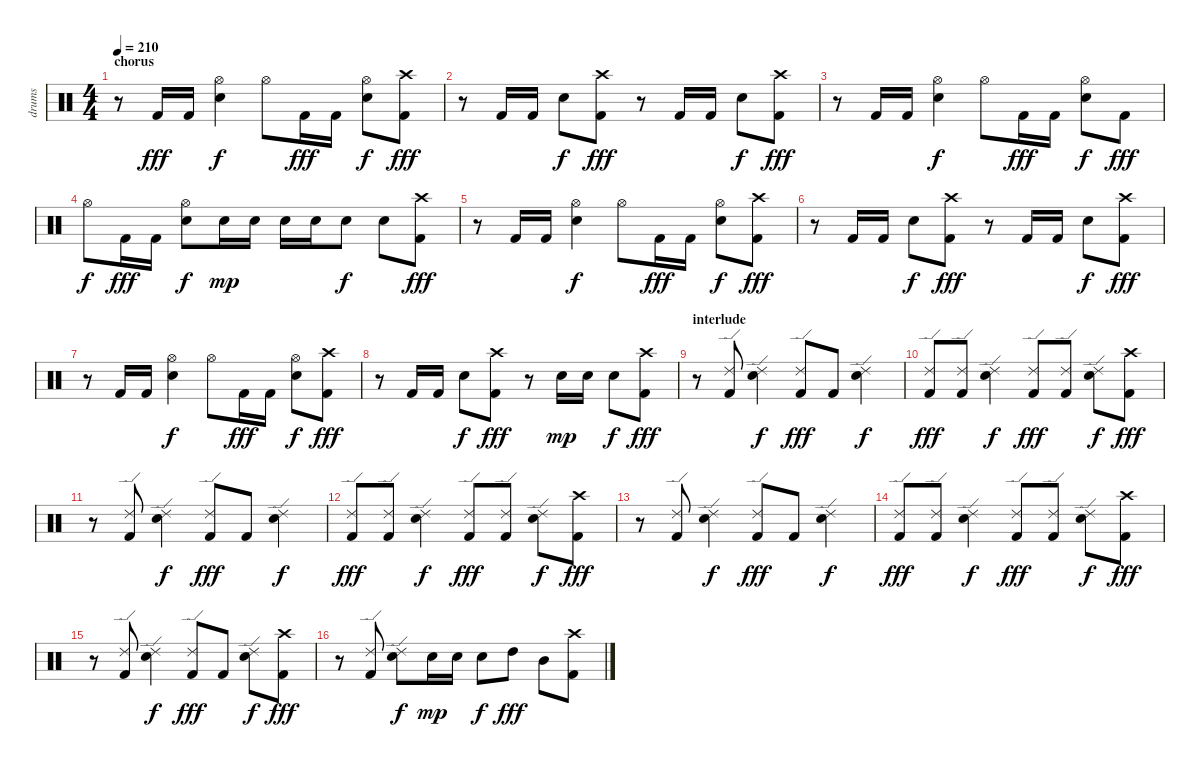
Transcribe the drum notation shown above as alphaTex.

\track ("drums" "drums") {instrument percussion}
\staff {score}
\articulation defaults
\ts (4 4)
\section ("" "chorus")
\tempo 210
\clef neutral
\ks c
r.8{dy fff} "Kick (hit) 2".16 "Kick (hit) 2".16 ("Hi-Hat (open)" "Snare (hit) 2").4{dy f} "Hi-Hat (open)".8 "Kick (hit) 2".16{dy fff} "Kick (hit) 2".16 ("Hi-Hat (open)" "Snare (hit) 2").8{dy f} ("Crash high (hit)" "Kick (hit) 2").8{dy fff} |
r.8 "Kick (hit) 2".16 "Kick (hit) 2".16 "Snare (hit) 2".8{dy f} ("Crash high (hit)" "Kick (hit) 2").8{dy fff} r.8 "Kick (hit) 2".16 "Kick (hit) 2".16 "Snare (hit) 2".8{dy f} ("Crash high (hit)" "Kick (hit) 2").8{dy fff} |
r.8 "Kick (hit) 2".16 "Kick (hit) 2".16 ("Hi-Hat (open)" "Snare (hit) 2").4{dy f} "Hi-Hat (open)".8 "Kick (hit) 2".16{dy fff} "Kick (hit) 2".16 ("Hi-Hat (open)" "Snare (hit) 2").8{dy f} "Kick (hit) 2".8{dy fff} |
"Hi-Hat (open)".8{dy f} "Kick (hit) 2".16{dy fff} "Kick (hit) 2".16 ("Hi-Hat (open)" "Snare (hit) 2").8{dy f} "Snare (hit) 2".16{dy mp} "Snare (hit) 2".16 "Snare (hit) 2".16 "Snare (hit) 2".16 "Snare (hit) 2".8{dy f} "Snare (hit) 2".8 ("Crash high (hit)" "Kick (hit) 2").8{dy fff} |
r.8 "Kick (hit) 2".16 "Kick (hit) 2".16 ("Hi-Hat (open)" "Snare (hit) 2").4{dy f} "Hi-Hat (open)".8 "Kick (hit) 2".16{dy fff} "Kick (hit) 2".16 ("Hi-Hat (open)" "Snare (hit) 2").8{dy f} ("Crash high (hit)" "Kick (hit) 2").8{dy fff} |
r.8 "Kick (hit) 2".16 "Kick (hit) 2".16 "Snare (hit) 2".8{dy f} ("Crash high (hit)" "Kick (hit) 2").8{dy fff} r.8 "Kick (hit) 2".16 "Kick (hit) 2".16 "Snare (hit) 2".8{dy f} ("Crash high (hit)" "Kick (hit) 2").8{dy fff} |
r.8 "Kick (hit) 2".16 "Kick (hit) 2".16 ("Hi-Hat (open)" "Snare (hit) 2").4{dy f} "Hi-Hat (open)".8 "Kick (hit) 2".16{dy fff} "Kick (hit) 2".16 ("Hi-Hat (open)" "Snare (hit) 2").8{dy f} ("Crash high (hit)" "Kick (hit) 2").8{dy fff} |
r.8 "Kick (hit) 2".16 "Kick (hit) 2".16 "Snare (hit) 2".8{dy f} ("Crash high (hit)" "Kick (hit) 2").8{dy fff} r.8 "Snare (hit) 2".16{dy mp} "Snare (hit) 2".16 "Snare (hit) 2".8{dy f} ("Crash high (hit)" "Kick (hit) 2").8{dy fff} |
\section ("" "interlude")
r.8 ("Ride (edge) 2" "Kick (hit) 2").8 ("Ride (edge) 2" "Snare (hit) 2").4{dy f} ("Ride (edge) 2" "Kick (hit) 2").8{dy fff} "Kick (hit) 2".8 ("Ride (edge) 2" "Snare (hit) 2").4{dy f} |
("Ride (edge) 2" "Kick (hit) 2").8{dy fff} ("Ride (edge) 2" "Kick (hit) 2").8 ("Ride (edge) 2" "Snare (hit) 2").4{dy f} ("Ride (edge) 2" "Kick (hit) 2").8{dy fff} ("Ride (edge) 2" "Kick (hit) 2").8 ("Ride (edge) 2" "Snare (hit) 2").8{dy f} ("Crash high (hit)" "Kick (hit) 2").8{dy fff} |
r.8 ("Ride (edge) 2" "Kick (hit) 2").8 ("Ride (edge) 2" "Snare (hit) 2").4{dy f} ("Ride (edge) 2" "Kick (hit) 2").8{dy fff} "Kick (hit) 2".8 ("Ride (edge) 2" "Snare (hit) 2").4{dy f} |
("Ride (edge) 2" "Kick (hit) 2").8{dy fff} ("Ride (edge) 2" "Kick (hit) 2").8 ("Ride (edge) 2" "Snare (hit) 2").4{dy f} ("Ride (edge) 2" "Kick (hit) 2").8{dy fff} ("Ride (edge) 2" "Kick (hit) 2").8 ("Ride (edge) 2" "Snare (hit) 2").8{dy f} ("Crash high (hit)" "Kick (hit) 2").8{dy fff} |
r.8 ("Ride (edge) 2" "Kick (hit) 2").8 ("Ride (edge) 2" "Snare (hit) 2").4{dy f} ("Ride (edge) 2" "Kick (hit) 2").8{dy fff} "Kick (hit) 2".8 ("Ride (edge) 2" "Snare (hit) 2").4{dy f} |
("Ride (edge) 2" "Kick (hit) 2").8{dy fff} ("Ride (edge) 2" "Kick (hit) 2").8 ("Ride (edge) 2" "Snare (hit) 2").4{dy f} ("Ride (edge) 2" "Kick (hit) 2").8{dy fff} ("Ride (edge) 2" "Kick (hit) 2").8 ("Ride (edge) 2" "Snare (hit) 2").8{dy f} ("Crash high (hit)" "Kick (hit) 2").8{dy fff} |
r.8 ("Ride (edge) 2" "Kick (hit) 2").8 ("Ride (edge) 2" "Snare (hit) 2").4{dy f} ("Ride (edge) 2" "Kick (hit) 2").8{dy fff} "Kick (hit) 2".8 ("Ride (edge) 2" "Snare (hit) 2").8{dy f} ("Crash high (hit)" "Kick (hit) 2").8{dy fff} |
r.8 ("Ride (edge) 2" "Kick (hit) 2").8 ("Ride (edge) 2" "Snare (hit) 2").8{dy f} "Snare (hit) 2".16{dy mp} "Snare (hit) 2".16 "Snare (hit) 2".8{dy f} "High Tom (hit)".8{dy fff} "Mid Tom (hit)".8 ("Crash high (hit)" "Kick (hit) 2").8
